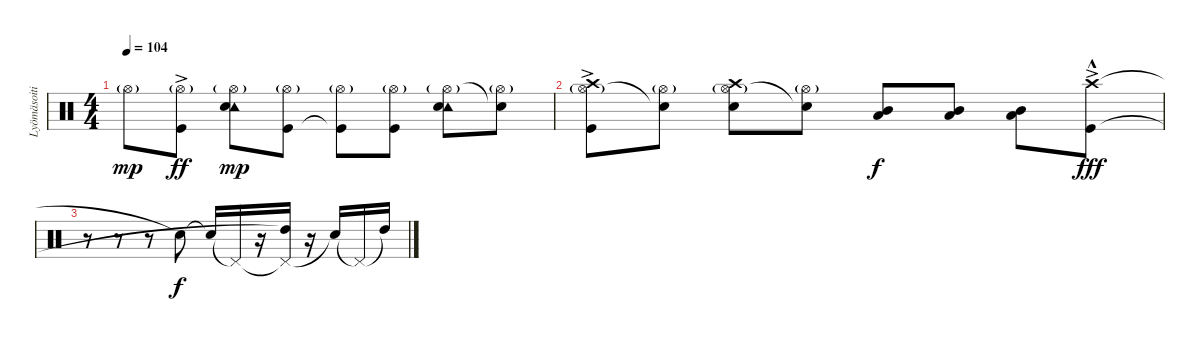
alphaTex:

\track ("Lyömäsoitin" "Lyömäsoiti") {instrument percussion}
\staff {score}
\articulation defaults
\ts (4 4)
\tempo 104
\clef neutral
\ks c "Hi-Hat (open)"{g}.8{dy mp}
("Hi-Hat (open)"{g} "Kick (hit)"{ac}).8{dy ff} ("Tambourine (hit)" "Hi-Hat (open)"{g} "Snare (hit) 2").8{dy mp} ("Hi-Hat (open)"{g} "Kick (hit)").8 ("Hi-Hat (open)"{g} "Kick (hit)"{t}).8 ("Hi-Hat (open)"{g} "Kick (hit)").8 ("Tambourine (hit)" "Hi-Hat (open)"{g} "Snare (hit) 2").8 ("Hi-Hat (open)"{g} "Snare (hit) 2"{t}).8 |
("Crash high (hit)"{ac} "Hi-Hat (open)"{g} "Kick (hit)").8 ("Hi-Hat (open)"{g} "Snare (hit)"{t}).8 ("Crash high (hit)" "Hi-Hat (open)"{g} "Snare (hit) 2").8 ("Hi-Hat (open)"{g} "Snare (hit)"{t}).8 ("Mid Tom (hit)" "Low Tom (hit)").8{dy f} ("Mid Tom (hit)" "Low Tom (hit)").8 ("Mid Tom (hit)" "Low Tom (hit)").8 ("Crash high (hit)"{ac} "Kick (hit)"{hac}).8{dy fff} |
r.8 r.8 r.8 "Snare (hit)"{t}.8{dy f} "Snare (hit)"{t}.16{volume 15} "Pedal Hi-Hat (hit)"{t}.16 r.16 ("Pedal Hi-Hat (hit)"{t} "High Tom (hit)"{t}).16 r.16 "Snare (hit)"{t}.16 "Pedal Hi-Hat (hit)"{t}.16 "High Tom (hit)"{t}.16
